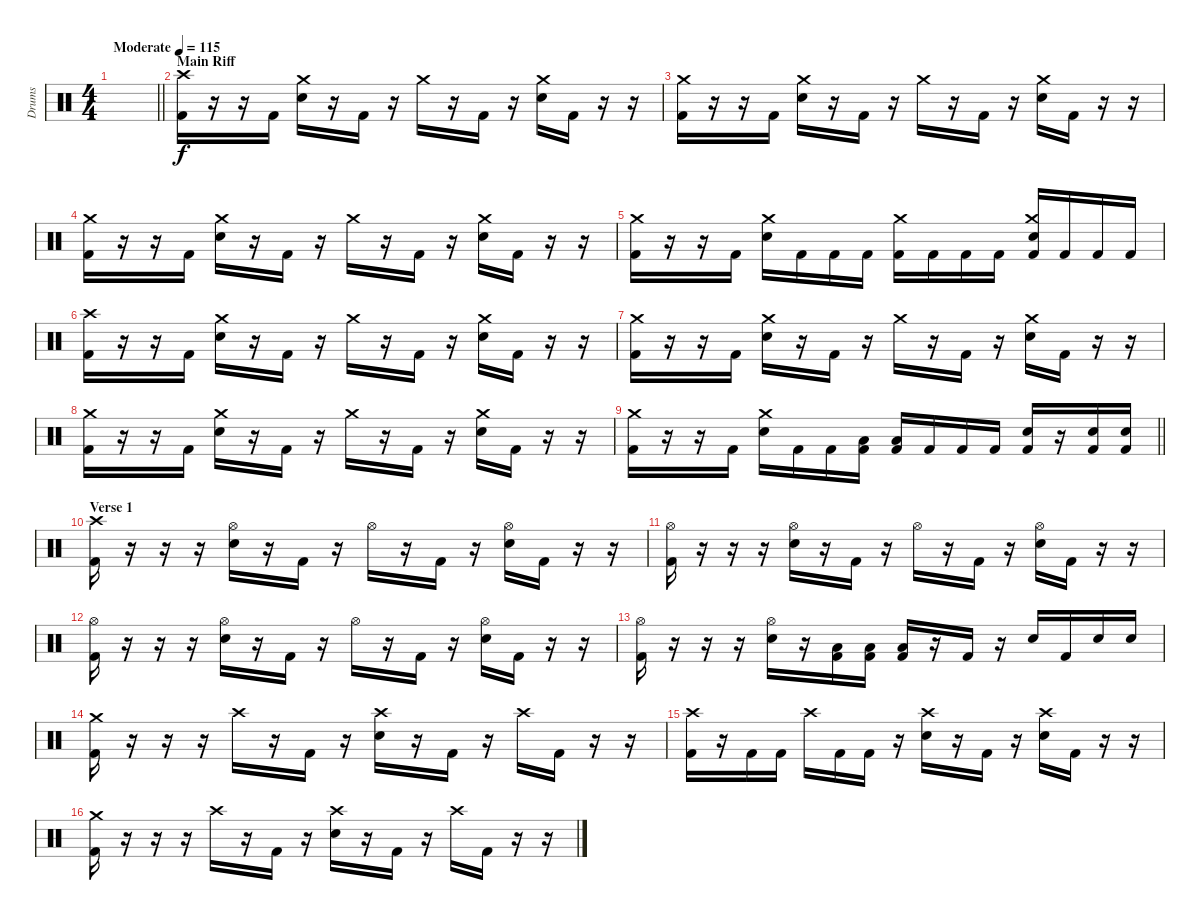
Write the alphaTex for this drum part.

\track ("Drums" "Drums") {instrument percussion}
\staff {score}
\articulation defaults
\ts (4 4)
\tempo (115 "Moderate")
\clef neutral
\barLineRight lightlight
\ks c
|
\section ("" "Main Riff")
("Crash high (hit)" "Kick (hit) 2").16 r.16 r.16 "Kick (hit) 2".16 ("Crash medium (hit)" "Electric Snare (hit)").16 r.16 "Kick (hit) 2".16 r.16 "Crash medium (hit)".16 r.16 "Kick (hit) 2".16 r.16 ("Crash medium (hit)" "Electric Snare (hit)").16 "Kick (hit) 2".16 r.16 r.16 |
("Crash medium (hit)" "Kick (hit) 2").16 r.16 r.16 "Kick (hit) 2".16 ("Crash medium (hit)" "Electric Snare (hit)").16 r.16 "Kick (hit) 2".16 r.16 "Crash medium (hit)".16 r.16 "Kick (hit) 2".16 r.16 ("Crash medium (hit)" "Electric Snare (hit)").16 "Kick (hit) 2".16 r.16 r.16 |
("Crash medium (hit)" "Kick (hit) 2").16 r.16 r.16 "Kick (hit) 2".16 ("Crash medium (hit)" "Electric Snare (hit)").16 r.16 "Kick (hit) 2".16 r.16 "Crash medium (hit)".16 r.16 "Kick (hit) 2".16 r.16 ("Crash medium (hit)" "Electric Snare (hit)").16 "Kick (hit) 2".16 r.16 r.16 |
("Crash medium (hit)" "Kick (hit) 2").16 r.16 r.16 "Kick (hit) 2".16 ("Crash medium (hit)" "Electric Snare (hit)").16 "Kick (hit) 2".16 "Kick (hit) 2".16 "Kick (hit) 2".16 ("Crash medium (hit)" "Kick (hit) 2").16 "Kick (hit) 2".16 "Kick (hit) 2".16 "Kick (hit) 2".16 ("Crash medium (hit)" "Electric Snare (hit)" "Kick (hit) 2").16 "Kick (hit) 2".16 "Kick (hit) 2".16 "Kick (hit) 2".16 |
("Crash high (hit)" "Kick (hit) 2").16 r.16 r.16 "Kick (hit) 2".16 ("Crash medium (hit)" "Electric Snare (hit)").16 r.16 "Kick (hit) 2".16 r.16 "Crash medium (hit)".16 r.16 "Kick (hit) 2".16 r.16 ("Crash medium (hit)" "Electric Snare (hit)").16 "Kick (hit) 2".16 r.16 r.16 |
("Crash medium (hit)" "Kick (hit) 2").16 r.16 r.16 "Kick (hit) 2".16 ("Crash medium (hit)" "Electric Snare (hit)").16 r.16 "Kick (hit) 2".16 r.16 "Crash medium (hit)".16 r.16 "Kick (hit) 2".16 r.16 ("Crash medium (hit)" "Electric Snare (hit)").16 "Kick (hit) 2".16 r.16 r.16 |
("Crash medium (hit)" "Kick (hit) 2").16 r.16 r.16 "Kick (hit) 2".16 ("Crash medium (hit)" "Electric Snare (hit)").16 r.16 "Kick (hit) 2".16 r.16 "Crash medium (hit)".16 r.16 "Kick (hit) 2".16 r.16 ("Crash medium (hit)" "Electric Snare (hit)").16 "Kick (hit) 2".16 r.16 r.16 |
\barLineRight lightlight
("Crash medium (hit)" "Kick (hit) 2").16 r.16 r.16 "Kick (hit) 2".16 ("Crash medium (hit)" "Electric Snare (hit)").16 "Kick (hit) 2".16 "Kick (hit) 2".16 ("Low Tom (hit)" "Kick (hit) 2").16 ("Low Tom (hit)" "Kick (hit) 2").16 "Kick (hit) 2".16 "Kick (hit) 2".16 "Kick (hit) 2".16 ("Electric Snare (hit)" "Kick (hit) 2").16 r.16 ("Electric Snare (hit)" "Kick (hit) 2").16 ("Electric Snare (hit)" "Kick (hit) 2").16 |
\section ("" "Verse 1")
("Crash high (hit)" "Kick (hit) 2").16 r.16 r.16 r.16 ("Hi-Hat (open)" "Electric Snare (hit)").16 r.16 "Kick (hit) 2".16 r.16 "Hi-Hat (open)".16 r.16 "Kick (hit) 2".16 r.16 ("Hi-Hat (open)" "Electric Snare (hit)").16 "Kick (hit) 2".16 r.16 r.16 |
("Hi-Hat (open)" "Kick (hit) 2").16 r.16 r.16 r.16 ("Hi-Hat (open)" "Electric Snare (hit)").16 r.16 "Kick (hit) 2".16 r.16 "Hi-Hat (open)".16 r.16 "Kick (hit) 2".16 r.16 ("Hi-Hat (open)" "Electric Snare (hit)").16 "Kick (hit) 2".16 r.16 r.16 |
("Hi-Hat (open)" "Kick (hit) 2").16 r.16 r.16 r.16 ("Hi-Hat (open)" "Electric Snare (hit)").16 r.16 "Kick (hit) 2".16 r.16 "Hi-Hat (open)".16 r.16 "Kick (hit) 2".16 r.16 ("Hi-Hat (open)" "Electric Snare (hit)").16 "Kick (hit) 2".16 r.16 r.16 |
("Hi-Hat (open)" "Kick (hit) 2").16 r.16 r.16 r.16 ("Hi-Hat (open)" "Electric Snare (hit)").16 r.16 ("Low Tom (hit)" "Kick (hit) 2").16 ("Low Tom (hit)" "Kick (hit) 2").16 ("Low Tom (hit)" "Kick (hit) 2").16 r.16 "Kick (hit) 2".16 r.16 "Electric Snare (hit)".16 "Kick (hit) 2".16 "Electric Snare (hit)".16 "Electric Snare (hit)".16 |
("Crash medium (hit)" "Kick (hit) 2").16 r.16 r.16 r.16 "Crash high (hit)".16 r.16 "Kick (hit) 2".16 r.16 ("Crash high (hit)" "Electric Snare (hit)").16 r.16 "Kick (hit) 2".16 r.16 "Crash high (hit)".16 "Kick (hit) 2".16 r.16 r.16 |
("Crash high (hit)" "Kick (hit) 2").16 r.16 "Kick (hit) 2".16 "Kick (hit) 2".16 "Crash high (hit)".16 "Kick (hit) 2".16 "Kick (hit) 2".16 r.16 ("Crash high (hit)" "Electric Snare (hit)").16 r.16 "Kick (hit) 2".16 r.16 ("Crash high (hit)" "Electric Snare (hit)").16 "Kick (hit) 2".16 r.16 r.16 |
("Crash medium (hit)" "Kick (hit) 2").16 r.16 r.16 r.16 "Crash high (hit)".16 r.16 "Kick (hit) 2".16 r.16 ("Crash high (hit)" "Electric Snare (hit)").16 r.16 "Kick (hit) 2".16 r.16 "Crash high (hit)".16 "Kick (hit) 2".16 r.16 r.16
